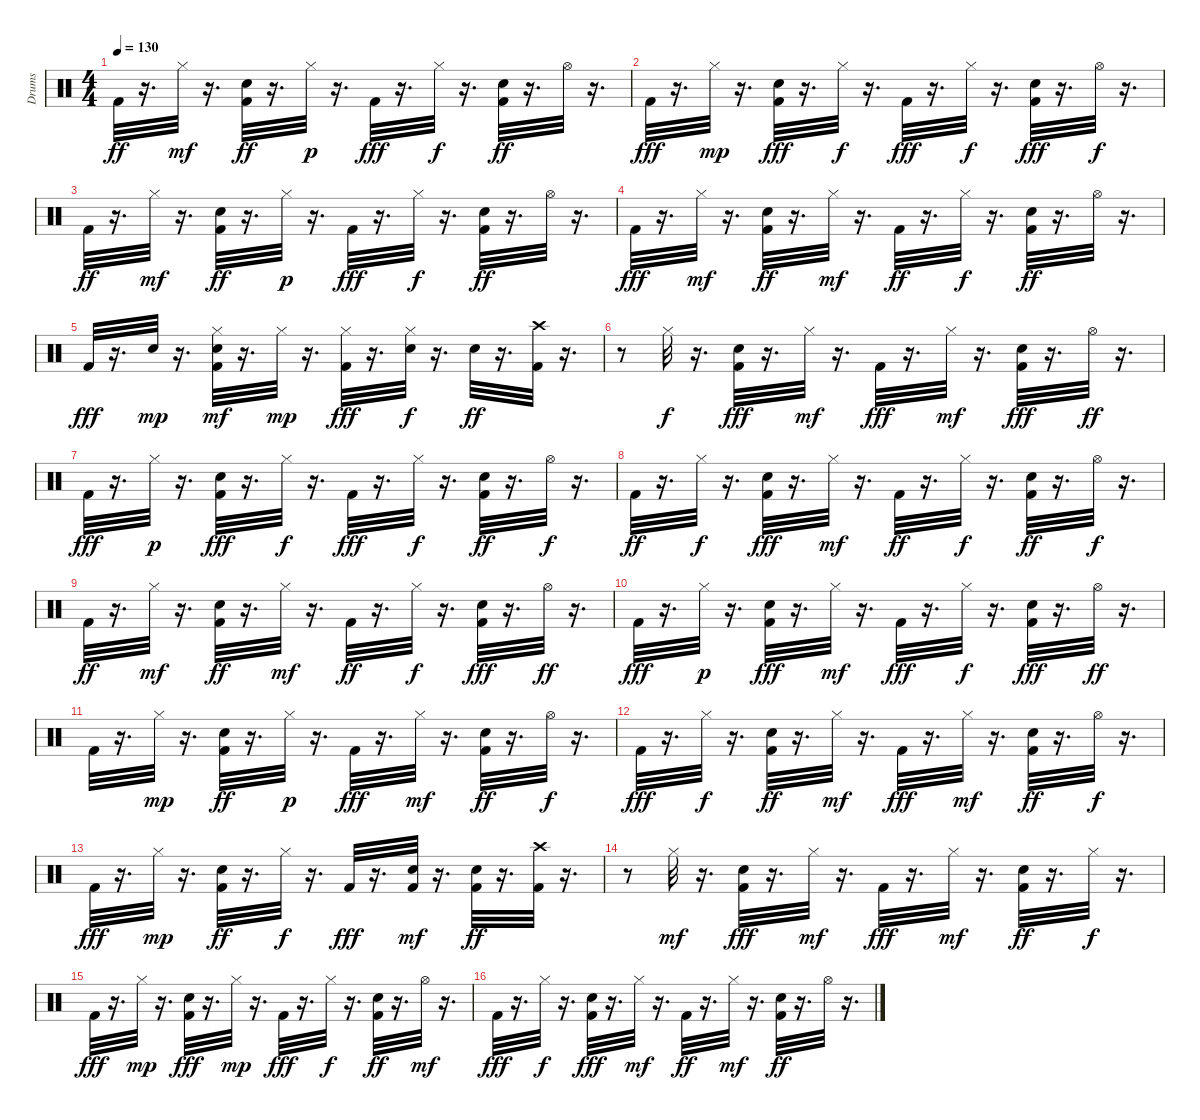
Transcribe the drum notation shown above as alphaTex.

\track ("Drums               " "Drums     ") {instrument percussion}
\staff {score}
\articulation defaults
\ts (4 4)
\tempo 130
\clef neutral
\ks c "Kick (hit) 2".32{dy ff}
r.16{d} "Hi-Hat (closed)".32{dy mf} r.16{d} ("Kick (hit) 2" "Snare (hit) 2").32{dy ff} r.16{d} "Hi-Hat (closed)".32{dy p} r.16{d} "Kick (hit) 2".32{dy fff} r.16{d} "Hi-Hat (closed)".32{dy f} r.16{d} ("Kick (hit) 2" "Snare (hit) 2").32{dy ff} r.16{d} "Hi-Hat (open)".32 r.16{d} |
"Kick (hit) 2".32{dy fff} r.16{d} "Hi-Hat (closed)".32{dy mp} r.16{d} ("Kick (hit) 2" "Snare (hit) 2").32{dy fff} r.16{d} "Hi-Hat (closed)".32{dy f} r.16{d} "Kick (hit) 2".32{dy fff} r.16{d} "Hi-Hat (closed)".32{dy f} r.16{d} ("Kick (hit) 2" "Snare (hit) 2").32{dy fff} r.16{d} "Hi-Hat (open)".32{dy f} r.16{d} |
"Kick (hit) 2".32{dy ff} r.16{d} "Hi-Hat (closed)".32{dy mf} r.16{d} ("Kick (hit) 2" "Snare (hit) 2").32{dy ff} r.16{d} "Hi-Hat (closed)".32{dy p} r.16{d} "Kick (hit) 2".32{dy fff} r.16{d} "Hi-Hat (closed)".32{dy f} r.16{d} ("Kick (hit) 2" "Snare (hit) 2").32{dy ff} r.16{d} "Hi-Hat (open)".32 r.16{d} |
"Kick (hit) 2".32{dy fff} r.16{d} "Hi-Hat (closed)".32{dy mf} r.16{d} ("Kick (hit) 2" "Snare (hit) 2").32{dy ff} r.16{d} "Hi-Hat (closed)".32{dy mf} r.16{d} "Kick (hit) 2".32{dy ff} r.16{d} "Hi-Hat (closed)".32{dy f} r.16{d} ("Kick (hit) 2" "Snare (hit) 2").32{dy ff} r.16{d} "Hi-Hat (open)".32 r.16{d} |
"Kick (hit) 2".32{dy fff} r.16{d} "Snare (hit) 2".32{dy mp} r.16{d} ("Kick (hit) 2" "Snare (hit) 2" "Hi-Hat (closed)").32{dy mf} r.16{d} "Hi-Hat (closed)".32{dy mp} r.16{d} ("Kick (hit) 2" "Hi-Hat (closed)").32{dy fff} r.16{d} ("Snare (hit) 2" "Hi-Hat (closed)").32{dy f} r.16{d} "Snare (hit) 2".32{dy ff} r.16{d} ("Kick (hit) 2" "Crash high (hit)").32 r.16{d} |
r.8 "Hi-Hat (closed)".32{dy f} r.16{d} ("Kick (hit) 2" "Snare (hit) 2").32{dy fff} r.16{d} "Hi-Hat (closed)".32{dy mf} r.16{d} "Kick (hit) 2".32{dy fff} r.16{d} "Hi-Hat (closed)".32{dy mf} r.16{d} ("Kick (hit) 2" "Snare (hit) 2").32{dy fff} r.16{d} "Hi-Hat (open)".32{dy ff} r.16{d} |
"Kick (hit) 2".32{dy fff} r.16{d} "Hi-Hat (closed)".32{dy p} r.16{d} ("Kick (hit) 2" "Snare (hit) 2").32{dy fff} r.16{d} "Hi-Hat (closed)".32{dy f} r.16{d} "Kick (hit) 2".32{dy fff} r.16{d} "Hi-Hat (closed)".32{dy f} r.16{d} ("Kick (hit) 2" "Snare (hit) 2").32{dy ff} r.16{d} "Hi-Hat (open)".32{dy f} r.16{d} |
"Kick (hit) 2".32{dy ff} r.16{d} "Hi-Hat (closed)".32{dy f} r.16{d} ("Kick (hit) 2" "Snare (hit) 2").32{dy fff} r.16{d} "Hi-Hat (closed)".32{dy mf} r.16{d} "Kick (hit) 2".32{dy ff} r.16{d} "Hi-Hat (closed)".32{dy f} r.16{d} ("Kick (hit) 2" "Snare (hit) 2").32{dy ff} r.16{d} "Hi-Hat (open)".32{dy f} r.16{d} |
"Kick (hit) 2".32{dy ff} r.16{d} "Hi-Hat (closed)".32{dy mf} r.16{d} ("Kick (hit) 2" "Snare (hit) 2").32{dy ff} r.16{d} "Hi-Hat (closed)".32{dy mf} r.16{d} "Kick (hit) 2".32{dy ff} r.16{d} "Hi-Hat (closed)".32{dy f} r.16{d} ("Kick (hit) 2" "Snare (hit) 2").32{dy fff} r.16{d} "Hi-Hat (open)".32{dy ff} r.16{d} |
"Kick (hit) 2".32{dy fff} r.16{d} "Hi-Hat (closed)".32{dy p} r.16{d} ("Kick (hit) 2" "Snare (hit) 2").32{dy fff} r.16{d} "Hi-Hat (closed)".32{dy mf} r.16{d} "Kick (hit) 2".32{dy fff} r.16{d} "Hi-Hat (closed)".32{dy f} r.16{d} ("Kick (hit) 2" "Snare (hit) 2").32{dy fff} r.16{d} "Hi-Hat (open)".32{dy ff} r.16{d} |
"Kick (hit) 2".32 r.16{d} "Hi-Hat (closed)".32{dy mp} r.16{d} ("Kick (hit) 2" "Snare (hit) 2").32{dy ff} r.16{d} "Hi-Hat (closed)".32{dy p} r.16{d} "Kick (hit) 2".32{dy fff} r.16{d} "Hi-Hat (closed)".32{dy mf} r.16{d} ("Kick (hit) 2" "Snare (hit) 2").32{dy ff} r.16{d} "Hi-Hat (open)".32{dy f} r.16{d} |
"Kick (hit) 2".32{dy fff} r.16{d} "Hi-Hat (closed)".32{dy f} r.16{d} ("Kick (hit) 2" "Snare (hit) 2").32{dy ff} r.16{d} "Hi-Hat (closed)".32{dy mf} r.16{d} "Kick (hit) 2".32{dy fff} r.16{d} "Hi-Hat (closed)".32{dy mf} r.16{d} ("Kick (hit) 2" "Snare (hit) 2").32{dy ff} r.16{d} "Hi-Hat (open)".32{dy f} r.16{d} |
"Kick (hit) 2".32{dy fff} r.16{d} "Hi-Hat (closed)".32{dy mp} r.16{d} ("Kick (hit) 2" "Snare (hit) 2").32{dy ff} r.16{d} "Hi-Hat (closed)".32{dy f} r.16{d} "Kick (hit) 2".32{dy fff} r.16{d} ("Kick (hit) 2" "Snare (hit) 2").32{dy mf} r.16{d} ("Kick (hit) 2" "Snare (hit) 2").32{dy ff} r.16{d} ("Kick (hit) 2" "Crash high (hit)").32 r.16{d} |
r.8 "Hi-Hat (closed)".32{dy mf} r.16{d} ("Kick (hit) 2" "Snare (hit) 2").32{dy fff} r.16{d} "Hi-Hat (closed)".32{dy mf} r.16{d} "Kick (hit) 2".32{dy fff} r.16{d} "Hi-Hat (closed)".32{dy mf} r.16{d} ("Kick (hit) 2" "Snare (hit) 2").32{dy ff} r.16{d} "Hi-Hat (closed)".32{dy f} r.16{d} |
"Kick (hit) 2".32{dy fff} r.16{d} "Hi-Hat (closed)".32{dy mp} r.16{d} ("Kick (hit) 2" "Snare (hit) 2").32{dy fff} r.16{d} "Hi-Hat (closed)".32{dy mp} r.16{d} "Kick (hit) 2".32{dy fff} r.16{d} "Hi-Hat (closed)".32{dy f} r.16{d} ("Kick (hit) 2" "Snare (hit) 2").32{dy ff} r.16{d} "Hi-Hat (open)".32{dy mf} r.16{d} |
"Kick (hit) 2".32{dy fff} r.16{d} "Hi-Hat (closed)".32{dy f} r.16{d} ("Kick (hit) 2" "Snare (hit) 2").32{dy fff} r.16{d} "Hi-Hat (closed)".32{dy mf} r.16{d} "Kick (hit) 2".32{dy ff} r.16{d} "Hi-Hat (closed)".32{dy mf} r.16{d} ("Kick (hit) 2" "Snare (hit) 2").32{dy ff} r.16{d} "Hi-Hat (open)".32 r.16{d}
